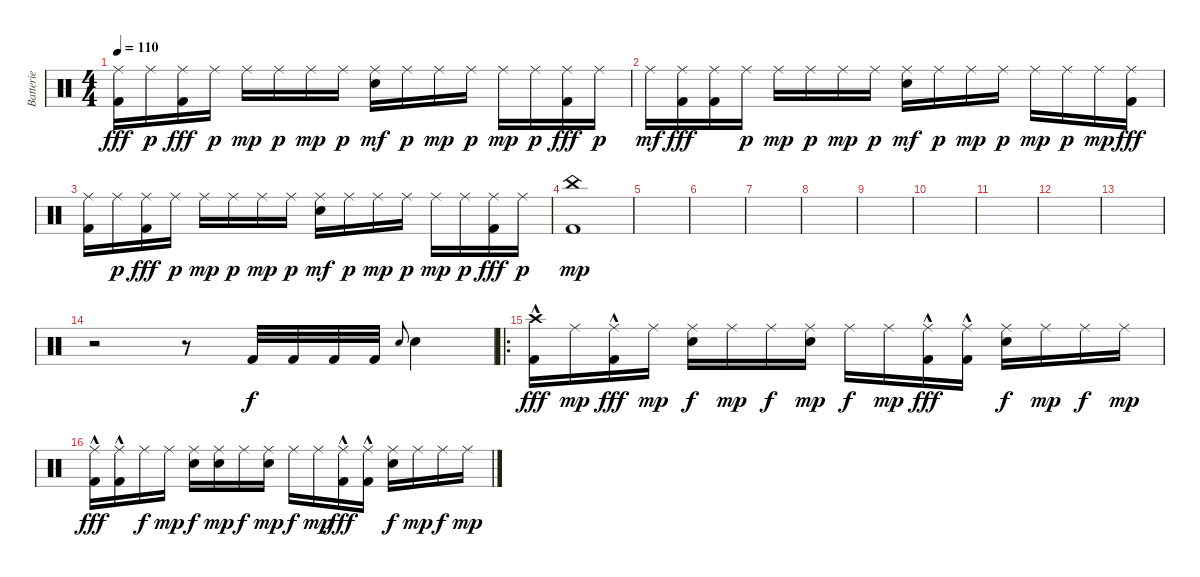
\track ("Batterie" "Batterie") {instrument percussion}
\staff {score}
\articulation defaults
\ts (4 4)
\tempo 110
\clef neutral
\ks c
("Ride (middle)" "Kick (hit) 2").16{dy fff} "Ride (middle)".16{dy p} ("Ride (middle)" "Kick (hit) 2").16{dy fff} "Ride (middle)".16{dy p} "Ride (middle)".16{dy mp} "Ride (middle)".16{dy p} "Ride (middle)".16{dy mp} "Ride (middle)".16{dy p} ("Ride (middle)" "Electric Snare (hit)").16{dy mf} "Ride (middle)".16{dy p} "Ride (middle)".16{dy mp} "Ride (middle)".16{dy p} "Ride (middle)".16{dy mp} "Ride (middle)".16{dy p} ("Ride (middle)" "Kick (hit) 2").16{dy fff} "Ride (middle)".16{dy p} |
"Ride (middle)".16{dy mf} ("Ride (middle)" "Kick (hit) 2").16{dy fff} ("Ride (middle)" "Kick (hit) 2").16 "Ride (middle)".16{dy p} "Ride (middle)".16{dy mp} "Ride (middle)".16{dy p} "Ride (middle)".16{dy mp} "Ride (middle)".16{dy p} ("Ride (middle)" "Electric Snare (hit)").16{dy mf} "Ride (middle)".16{dy p} "Ride (middle)".16{dy mp} "Ride (middle)".16{dy p} "Ride (middle)".16{dy mp} "Ride (middle)".16{dy p} "Ride (middle)".16{dy mp} ("Ride (middle)" "Kick (hit) 2").16{dy fff} |
("Ride (middle)" "Kick (hit) 2").16 "Ride (middle)".16{dy p} ("Ride (middle)" "Kick (hit) 2").16{dy fff} "Ride (middle)".16{dy p} "Ride (middle)".16{dy mp} "Ride (middle)".16{dy p} "Ride (middle)".16{dy mp} "Ride (middle)".16{dy p} ("Ride (middle)" "Electric Snare (hit)").16{dy mf} "Ride (middle)".16{dy p} "Ride (middle)".16{dy mp} "Ride (middle)".16{dy p} "Ride (middle)".16{dy mp} "Ride (middle)".16{dy p} ("Ride (middle)" "Kick (hit) 2").16{dy fff} "Ride (middle)".16{dy p} |
("China (hit)" "Kick (hit) 2").1{dy mp} |
|
|
|
|
|
|
|
|
|
r.2 r.8 "Kick (hit) 2".32{dy f} "Kick (hit) 2".32 "Kick (hit) 2".32 "Kick (hit) 2".32 "Electric Snare (hit)".8{gr onbeat} "Electric Snare (hit)".4 |
\ro
("Crash high (hit)" "Kick (hit) 2"{hac}).16{dy fff} "Ride (middle)".16{dy mp} ("Ride (middle)" "Kick (hit) 2"{hac}).16{dy fff} "Ride (middle)".16{dy mp} ("Ride (middle)" "Electric Snare (hit)").16{dy f} "Ride (middle)".16{dy mp} "Ride (middle)".16{dy f} ("Ride (middle)" "Electric Snare (hit)").16{dy mp} "Ride (middle)".16{dy f} "Ride (middle)".16{dy mp} ("Ride (middle)" "Kick (hit) 2"{hac}).16{dy fff} ("Ride (middle)" "Kick (hit) 2"{hac}).16 ("Ride (middle)" "Electric Snare (hit)").16{dy f} "Ride (middle)".16{dy mp} "Ride (middle)".16{dy f} "Ride (middle)".16{dy mp} |
("Ride (middle)" "Kick (hit) 2"{hac}).16{dy fff} ("Ride (middle)" "Kick (hit) 2"{hac}).16 "Ride (middle)".16{dy f} "Ride (middle)".16{dy mp} ("Ride (middle)" "Electric Snare (hit)").16{dy f} ("Ride (middle)" "Electric Snare (hit)").16{dy mp} "Ride (middle)".16{dy f} ("Ride (middle)" "Electric Snare (hit)").16{dy mp} "Ride (middle)".16{dy f} "Ride (middle)".16{dy mp} ("Ride (middle)" "Kick (hit) 2"{hac}).16{dy fff} ("Ride (middle)" "Kick (hit) 2"{hac}).16 ("Ride (middle)" "Electric Snare (hit)").16{dy f} "Ride (middle)".16{dy mp} "Ride (middle)".16{dy f} "Ride (middle)".16{dy mp}
